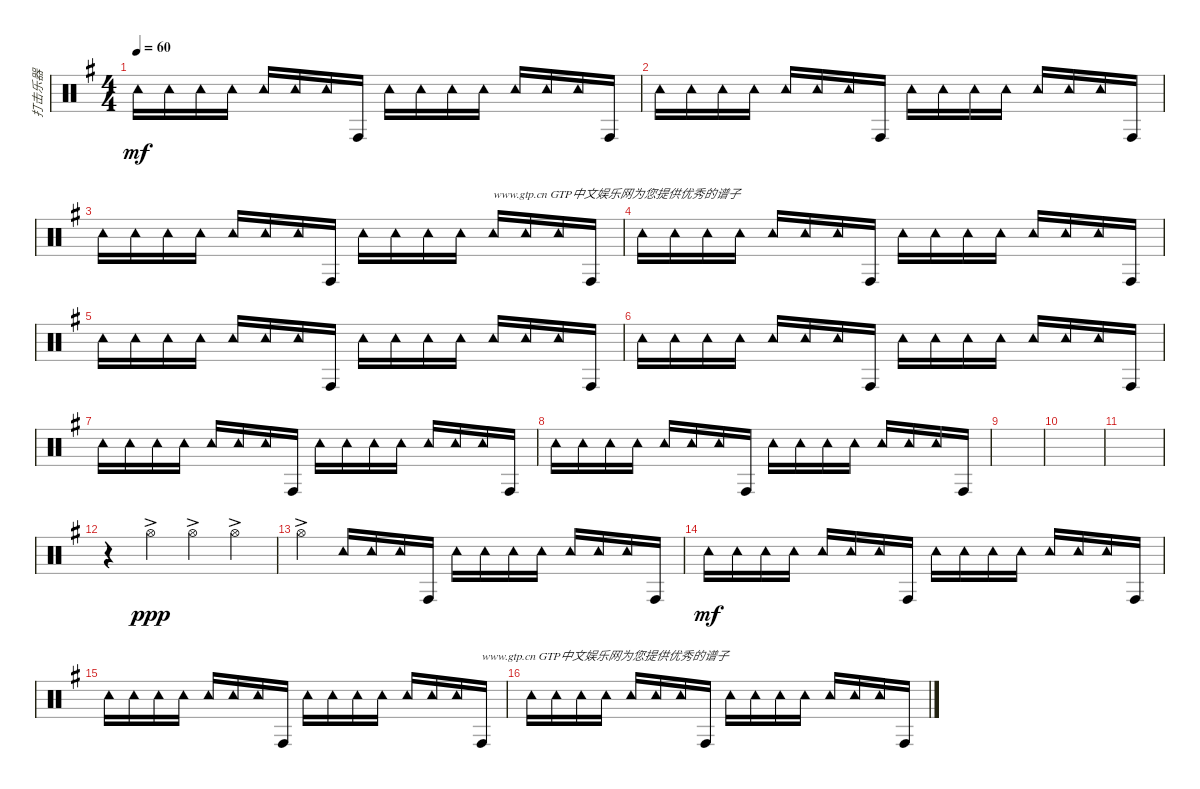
\track ("打击乐器" "打击乐器") {instrument percussion bank 3}
\staff {score}
\articulation defaults
\ts (4 4)
\tempo 60
\clef neutral
\ks g "Tambourine (hit)".16{dy mf} "Tambourine (hit)".16 "Tambourine (hit)".16 "Tambourine (hit)".16 "Tambourine (hit)".16 "Tambourine (hit)".16 "Tambourine (hit)".16 "Conga high (hit)".16 "Tambourine (hit)".16 "Tambourine (hit)".16 "Tambourine (hit)".16 "Tambourine (hit)".16 "Tambourine (hit)".16 "Tambourine (hit)".16 "Tambourine (hit)".16 "Conga high (hit)".16
|
"Tambourine (hit)".16 "Tambourine (hit)".16 "Tambourine (hit)".16 "Tambourine (hit)".16 "Tambourine (hit)".16 "Tambourine (hit)".16 "Tambourine (hit)".16 "Conga high (hit)".16 "Tambourine (hit)".16 "Tambourine (hit)".16 "Tambourine (hit)".16 "Tambourine (hit)".16 "Tambourine (hit)".16 "Tambourine (hit)".16 "Tambourine (hit)".16 "Conga high (hit)".16 |
"Tambourine (hit)".16 "Tambourine (hit)".16 "Tambourine (hit)".16 "Tambourine (hit)".16 "Tambourine (hit)".16 "Tambourine (hit)".16 "Tambourine (hit)".16 "Conga high (hit)".16 "Tambourine (hit)".16 "Tambourine (hit)".16 "Tambourine (hit)".16 "Tambourine (hit)".16 "Tambourine (hit)".16{txt "www.gtp.cn GTP中文娱乐网为您提供优秀的谱子"} "Tambourine (hit)".16 "Tambourine (hit)".16 "Conga high (hit)".16 |
"Tambourine (hit)".16 "Tambourine (hit)".16 "Tambourine (hit)".16 "Tambourine (hit)".16 "Tambourine (hit)".16 "Tambourine (hit)".16 "Tambourine (hit)".16 "Conga high (hit)".16 "Tambourine (hit)".16 "Tambourine (hit)".16 "Tambourine (hit)".16 "Tambourine (hit)".16 "Tambourine (hit)".16 "Tambourine (hit)".16 "Tambourine (hit)".16 "Conga high (hit)".16 |
"Tambourine (hit)".16 "Tambourine (hit)".16 "Tambourine (hit)".16 "Tambourine (hit)".16 "Tambourine (hit)".16 "Tambourine (hit)".16 "Tambourine (hit)".16 "Conga high (hit)".16 "Tambourine (hit)".16 "Tambourine (hit)".16 "Tambourine (hit)".16 "Tambourine (hit)".16 "Tambourine (hit)".16 "Tambourine (hit)".16 "Tambourine (hit)".16 "Conga high (hit)".16 |
"Tambourine (hit)".16 "Tambourine (hit)".16 "Tambourine (hit)".16 "Tambourine (hit)".16 "Tambourine (hit)".16 "Tambourine (hit)".16 "Tambourine (hit)".16 "Conga high (hit)".16 "Tambourine (hit)".16 "Tambourine (hit)".16 "Tambourine (hit)".16 "Tambourine (hit)".16 "Tambourine (hit)".16 "Tambourine (hit)".16 "Tambourine (hit)".16 "Conga high (hit)".16 |
"Tambourine (hit)".16 "Tambourine (hit)".16 "Tambourine (hit)".16 "Tambourine (hit)".16 "Tambourine (hit)".16 "Tambourine (hit)".16 "Tambourine (hit)".16 "Conga high (hit)".16 "Tambourine (hit)".16 "Tambourine (hit)".16 "Tambourine (hit)".16 "Tambourine (hit)".16 "Tambourine (hit)".16 "Tambourine (hit)".16 "Tambourine (hit)".16 "Conga high (hit)".16 |
"Tambourine (hit)".16 "Tambourine (hit)".16 "Tambourine (hit)".16 "Tambourine (hit)".16 "Tambourine (hit)".16 "Tambourine (hit)".16 "Tambourine (hit)".16 "Conga high (hit)".16 "Tambourine (hit)".16 "Tambourine (hit)".16 "Tambourine (hit)".16 "Tambourine (hit)".16 "Tambourine (hit)".16 "Tambourine (hit)".16 "Tambourine (hit)".16 "Conga high (hit)".16 |
|
|
|
r.4 "Hi-Hat (open)"{ac}.4{dy ppp} "Hi-Hat (open)"{ac}.4 "Hi-Hat (open)"{ac}.4 |
"Hi-Hat (open)"{ac}.4 "Tambourine (hit)".16 "Tambourine (hit)".16 "Tambourine (hit)".16 "Conga high (hit)".16 "Tambourine (hit)".16 "Tambourine (hit)".16 "Tambourine (hit)".16 "Tambourine (hit)".16 "Tambourine (hit)".16 "Tambourine (hit)".16 "Tambourine (hit)".16 "Conga high (hit)".16 |
"Tambourine (hit)".16{dy mf} "Tambourine (hit)".16 "Tambourine (hit)".16 "Tambourine (hit)".16 "Tambourine (hit)".16 "Tambourine (hit)".16 "Tambourine (hit)".16 "Conga high (hit)".16 "Tambourine (hit)".16 "Tambourine (hit)".16 "Tambourine (hit)".16 "Tambourine (hit)".16 "Tambourine (hit)".16 "Tambourine (hit)".16 "Tambourine (hit)".16 "Conga high (hit)".16 |
"Tambourine (hit)".16 "Tambourine (hit)".16 "Tambourine (hit)".16 "Tambourine (hit)".16 "Tambourine (hit)".16 "Tambourine (hit)".16 "Tambourine (hit)".16 "Conga high (hit)".16 "Tambourine (hit)".16 "Tambourine (hit)".16 "Tambourine (hit)".16 "Tambourine (hit)".16 "Tambourine (hit)".16 "Tambourine (hit)".16 "Tambourine (hit)".16 "Conga high (hit)".16{txt "www.gtp.cn GTP中文娱乐网为您提供优秀的谱子"} |
"Tambourine (hit)".16 "Tambourine (hit)".16 "Tambourine (hit)".16 "Tambourine (hit)".16 "Tambourine (hit)".16 "Tambourine (hit)".16 "Tambourine (hit)".16 "Conga high (hit)".16 "Tambourine (hit)".16 "Tambourine (hit)".16 "Tambourine (hit)".16 "Tambourine (hit)".16 "Tambourine (hit)".16 "Tambourine (hit)".16 "Tambourine (hit)".16 "Conga high (hit)".16
